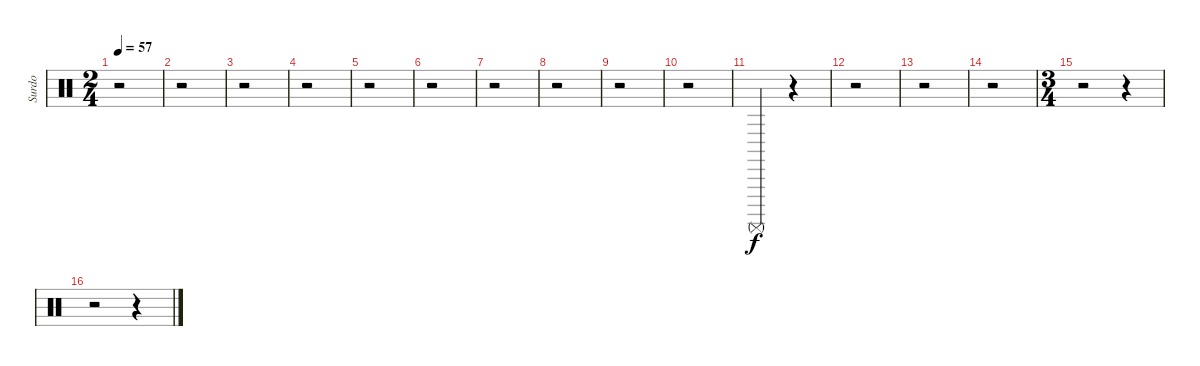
\track ("Surdo" "Surdo") {instrument percussion}
\staff {score}
\articulation defaults
\ts (2 4)
\tempo 57
\clef neutral
\ks c
r.2{dy f} |
r.2 |
r.2 |
r.2 |
r.2 |
r.2 |
r.2 |
r.2 |
r.2 |
r.2 |
"Surdo (mute)".4 r.4 |
r.2 |
r.2 |
r.2 |
\ts (3 4)
r.2 r.4 |
r.2 r.4
